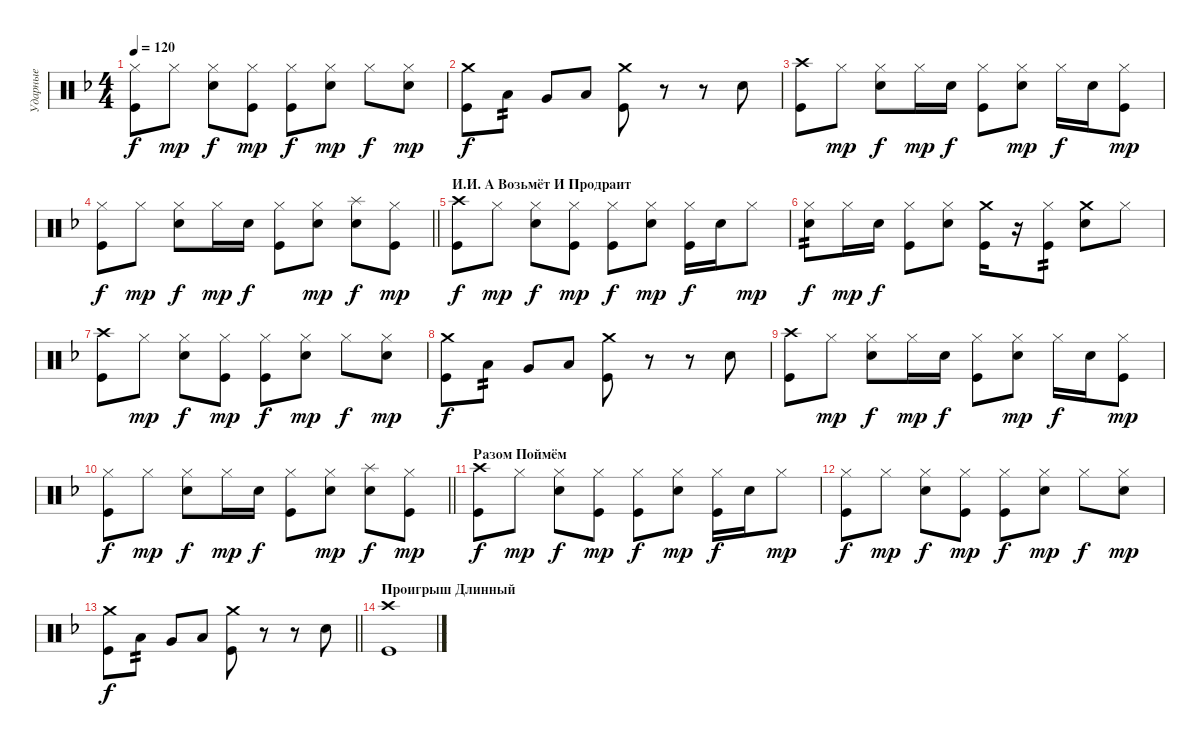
\track ("Ударные" "Ударные") {instrument percussion}
\staff {score}
\articulation defaults
\ts (4 4)
\tempo 120
\clef neutral
\ks dminor
("Hi-Hat (closed)" "Kick (hit)").8{dy f} "Hi-Hat (closed)".8{dy mp} ("Hi-Hat (closed)" "Snare (hit) 2").8{dy f} ("Hi-Hat (closed)" "Kick (hit)").8{dy mp} ("Hi-Hat (closed)" "Kick (hit)").8{dy f} ("Hi-Hat (closed)" "Snare (hit) 2").8{dy mp} "Hi-Hat (closed)".8{dy f} ("Hi-Hat (closed)" "Snare (hit) 2").8{dy mp} |
("Crash medium (hit)" "Kick (hit)").8{dy f} "Low Tom (hit)".8{tp 2} "Very Low Tom (hit)".8 "Low Floor Tom (hit)".8 ("Crash medium (hit)" "Kick (hit)").8 r.8 r.8 "Snare (hit) 2".8 |
("Crash high (hit)" "Kick (hit)").8 "Hi-Hat (closed)".8{dy mp} ("Hi-Hat (closed)" "Snare (hit) 2").8{dy f} "Hi-Hat (closed)".16{dy mp} "Snare (hit) 2".16{dy f} ("Hi-Hat (closed)" "Kick (hit)").8 ("Hi-Hat (closed)" "Snare (hit) 2").8{dy mp} "Hi-Hat (closed)".16{dy f} "Snare (hit) 2".16 ("Hi-Hat (closed)" "Kick (hit)").8{dy mp} |
\barLineRight lightlight
("Hi-Hat (closed)" "Kick (hit)").8{dy f} "Hi-Hat (closed)".8{dy mp} ("Hi-Hat (closed)" "Snare (hit) 2").8{dy f} "Hi-Hat (closed)".16{dy mp} "Snare (hit) 2".16{dy f} ("Hi-Hat (closed)" "Kick (hit)").8 ("Hi-Hat (closed)" "Snare (hit) 2").8{dy mp} ("Splash (hit)" "Snare (hit) 2").8{dy f} ("Hi-Hat (closed)" "Kick (hit)").8{dy mp} |
\section ("" "И.И. А Возьмёт И Продраит")
("Crash high (hit)" "Kick (hit)").8{dy f} "Hi-Hat (closed)".8{dy mp} ("Hi-Hat (closed)" "Snare (hit) 2").8{dy f} ("Hi-Hat (closed)" "Kick (hit)").8{dy mp} ("Hi-Hat (closed)" "Kick (hit)").8{dy f} ("Hi-Hat (closed)" "Snare (hit) 2").8{dy mp} ("Hi-Hat (closed)" "Kick (hit)").16{dy f} "Snare (hit) 2".16 "Hi-Hat (closed)".8{dy mp} |
("Hi-Hat (closed)" "Snare (hit) 2").8{tp 2 dy f} "Hi-Hat (closed)".16{dy mp} "Snare (hit) 2".16{dy f} ("Hi-Hat (closed)" "Kick (hit)").8 ("Hi-Hat (closed)" "Snare (hit) 2").8 ("Crash medium (hit)" "Kick (hit)").16 r.16 ("Hi-Hat (closed)" "Kick (hit)").8{tp 2} ("Crash medium (hit)" "Snare (hit) 2").8 "Hi-Hat (closed)".8 |
("Crash high (hit)" "Kick (hit)").8 "Hi-Hat (closed)".8{dy mp} ("Hi-Hat (closed)" "Snare (hit) 2").8{dy f} ("Hi-Hat (closed)" "Kick (hit)").8{dy mp} ("Hi-Hat (closed)" "Kick (hit)").8{dy f} ("Hi-Hat (closed)" "Snare (hit) 2").8{dy mp} "Hi-Hat (closed)".8{dy f} ("Hi-Hat (closed)" "Snare (hit) 2").8{dy mp} |
("Crash medium (hit)" "Kick (hit)").8{dy f} "Low Tom (hit)".8{tp 2} "Very Low Tom (hit)".8 "Low Floor Tom (hit)".8 ("Crash medium (hit)" "Kick (hit)").8 r.8 r.8 "Snare (hit) 2".8 |
("Crash high (hit)" "Kick (hit)").8 "Hi-Hat (closed)".8{dy mp} ("Hi-Hat (closed)" "Snare (hit) 2").8{dy f} "Hi-Hat (closed)".16{dy mp} "Snare (hit) 2".16{dy f} ("Hi-Hat (closed)" "Kick (hit)").8 ("Hi-Hat (closed)" "Snare (hit) 2").8{dy mp} "Hi-Hat (closed)".16{dy f} "Snare (hit) 2".16 ("Hi-Hat (closed)" "Kick (hit)").8{dy mp} |
\barLineRight lightlight
("Hi-Hat (closed)" "Kick (hit)").8{dy f} "Hi-Hat (closed)".8{dy mp} ("Hi-Hat (closed)" "Snare (hit) 2").8{dy f} "Hi-Hat (closed)".16{dy mp} "Snare (hit) 2".16{dy f} ("Hi-Hat (closed)" "Kick (hit)").8 ("Hi-Hat (closed)" "Snare (hit) 2").8{dy mp} ("Splash (hit)" "Snare (hit) 2").8{dy f} ("Hi-Hat (closed)" "Kick (hit)").8{dy mp} |
\section ("" "Разом Поймём")
("Crash high (hit)" "Kick (hit)").8{dy f} "Hi-Hat (closed)".8{dy mp} ("Hi-Hat (closed)" "Snare (hit) 2").8{dy f} ("Hi-Hat (closed)" "Kick (hit)").8{dy mp} ("Hi-Hat (closed)" "Kick (hit)").8{dy f} ("Hi-Hat (closed)" "Snare (hit) 2").8{dy mp} ("Hi-Hat (closed)" "Kick (hit)").16{dy f} "Snare (hit) 2".16 "Hi-Hat (closed)".8{dy mp} |
("Hi-Hat (closed)" "Kick (hit)").8{dy f} "Hi-Hat (closed)".8{dy mp} ("Hi-Hat (closed)" "Snare (hit) 2").8{dy f} ("Hi-Hat (closed)" "Kick (hit)").8{dy mp} ("Hi-Hat (closed)" "Kick (hit)").8{dy f} ("Hi-Hat (closed)" "Snare (hit) 2").8{dy mp} "Hi-Hat (closed)".8{dy f} ("Hi-Hat (closed)" "Snare (hit) 2").8{dy mp} |
\barLineRight lightlight
("Crash medium (hit)" "Kick (hit)").8{dy f} "Low Tom (hit)".8{tp 2} "Very Low Tom (hit)".8 "Low Floor Tom (hit)".8 ("Crash medium (hit)" "Kick (hit)").8 r.8 r.8 "Snare (hit) 2".8 |
\section ("" "Проигрыш Длинный")
("Crash high (hit)" "Kick (hit)").1
